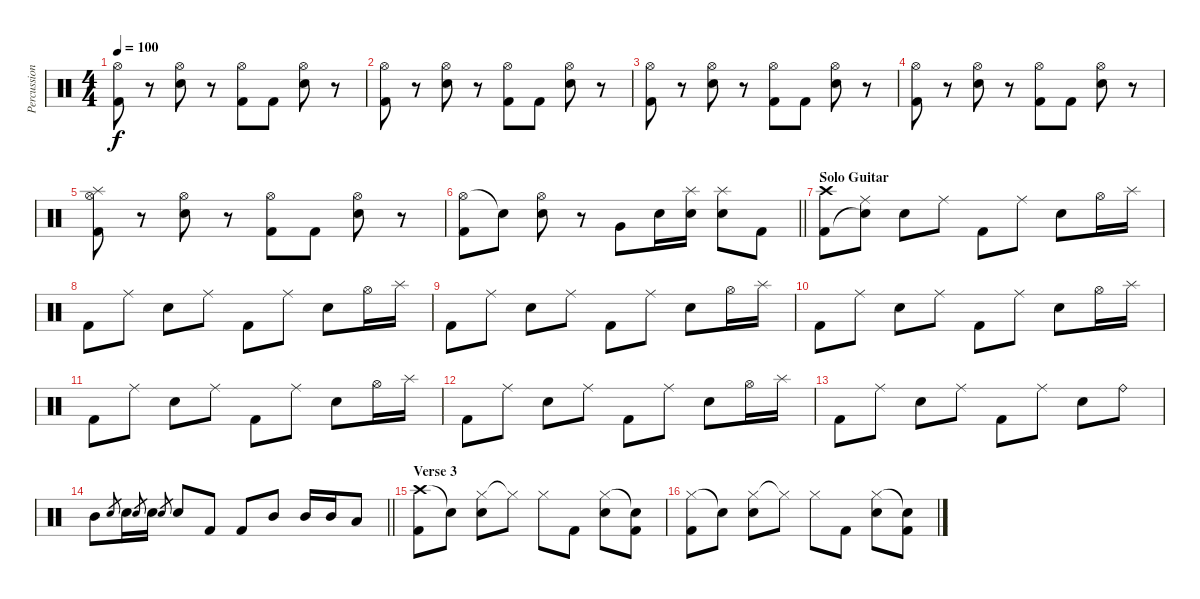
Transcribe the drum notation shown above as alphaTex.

\track ("Percussion(Tomi)" "Percussion") {instrument percussion}
\staff {score}
\articulation defaults
\ts (4 4)
\tempo 100
\clef neutral
\ks c
("Hi-Hat (open)" "Kick (hit) 2").8{dy f} r.8 ("Hi-Hat (open)" "Electric Snare (hit)").8 r.8 ("Hi-Hat (open)" "Kick (hit) 2").8 "Kick (hit) 2".8 ("Hi-Hat (open)" "Electric Snare (hit)").8 r.8 |
("Hi-Hat (open)" "Kick (hit) 2").8 r.8 ("Hi-Hat (open)" "Electric Snare (hit)").8 r.8 ("Hi-Hat (open)" "Kick (hit) 2").8 "Kick (hit) 2".8 ("Hi-Hat (open)" "Electric Snare (hit)").8 r.8 |
("Hi-Hat (open)" "Kick (hit) 2").8 r.8 ("Hi-Hat (open)" "Electric Snare (hit)").8 r.8 ("Hi-Hat (open)" "Kick (hit) 2").8 "Kick (hit) 2".8 ("Hi-Hat (open)" "Electric Snare (hit)").8 r.8 |
("Hi-Hat (open)" "Kick (hit) 2").8 r.8 ("Hi-Hat (open)" "Electric Snare (hit)").8 r.8 ("Hi-Hat (open)" "Kick (hit) 2").8 "Kick (hit) 2".8 ("Hi-Hat (open)" "Electric Snare (hit)").8 r.8 |
("Hi-Hat (open)" "Splash (hit)" "Kick (hit) 2").8 r.8 ("Hi-Hat (open)" "Electric Snare (hit)").8 r.8 ("Hi-Hat (open)" "Kick (hit) 2").8 "Kick (hit) 2".8 ("Hi-Hat (open)" "Electric Snare (hit)").8 r.8 |
\barLineRight lightlight
("Hi-Hat (open)" "Kick (hit) 2").8 "Snare (hit)"{t}.8 ("Hi-Hat (open)" "Electric Snare (hit)").8 r.8 "Very Low Tom (hit)".8 "Electric Snare (hit)".16 ("Splash (hit)" "Electric Snare (hit)").16 ("Splash (hit)" "Electric Snare (hit)").8 "Kick (hit) 2".8 |
\section ("" "Solo Guitar")
("Crash high (hit)" "Kick (hit) 2").8 ("Ride (middle)" "Snare (hit)"{t}).8 "Electric Snare (hit)".8 "Ride (middle)".8 "Kick (hit) 2".8 "Ride (middle)".8 "Electric Snare (hit)".8 "Hi-Hat (open)".16 "Splash (hit)".16 |
"Kick (hit) 2".8 "Ride (middle)".8 "Electric Snare (hit)".8 "Ride (middle)".8 "Kick (hit) 2".8 "Ride (middle)".8 "Electric Snare (hit)".8 "Hi-Hat (open)".16 "Splash (hit)".16 |
"Kick (hit) 2".8 "Ride (middle)".8 "Electric Snare (hit)".8 "Ride (middle)".8 "Kick (hit) 2".8 "Ride (middle)".8 "Electric Snare (hit)".8 "Hi-Hat (open)".16 "Splash (hit)".16 |
"Kick (hit) 2".8 "Ride (middle)".8 "Electric Snare (hit)".8 "Ride (middle)".8 "Kick (hit) 2".8 "Ride (middle)".8 "Electric Snare (hit)".8 "Hi-Hat (open)".16 "Splash (hit)".16 |
"Kick (hit) 2".8 "Ride (middle)".8 "Electric Snare (hit)".8 "Ride (middle)".8 "Kick (hit) 2".8 "Ride (middle)".8 "Electric Snare (hit)".8 "Hi-Hat (open)".16 "Splash (hit)".16 |
"Kick (hit) 2".8 "Ride (middle)".8 "Electric Snare (hit)".8 "Ride (middle)".8 "Kick (hit) 2".8 "Ride (middle)".8 "Electric Snare (hit)".8 "Hi-Hat (open)".16 "Splash (hit)".16 |
"Kick (hit) 2".8 "Ride (middle)".8 "Electric Snare (hit)".8 "Ride (middle)".8 "Kick (hit) 2".8 "Ride (middle)".8 "Electric Snare (hit)".8 "Ride (bell)".8 |
\barLineRight lightlight "Mid Tom (hit)".8 "Electric Snare (hit)".8{gr} "Electric Snare (hit)".16 "Electric Snare (hit)".8{gr} "Electric Snare (hit)".16 "Electric Snare (hit)".8{gr} "Electric Snare (hit)".8 "Kick (hit) 2".8 "Kick (hit) 2".8 "Mid Tom (hit)".8 "Mid Tom (hit)".16 "Mid Tom (hit)".16 "Low Tom (hit)".8
|
\section ("" "Verse 3")
("Crash high (hit)" "Kick (hit) 2").8 "Snare (hit)"{t}.8 ("Hi-Hat (closed)" "Electric Snare (hit)").8 "Hi-Hat (closed)"{t}.8 "Hi-Hat (closed)".8 "Kick (hit) 2".8 ("Hi-Hat (closed)" "Electric Snare (hit)").8 ("Snare (hit)"{t} "Kick (hit) 2").8 |
("Hi-Hat (closed)" "Kick (hit) 2").8 "Snare (hit)"{t}.8 ("Hi-Hat (closed)" "Electric Snare (hit)").8 "Hi-Hat (closed)"{t}.8 "Hi-Hat (closed)".8 "Kick (hit) 2".8 ("Hi-Hat (closed)" "Electric Snare (hit)").8 ("Snare (hit)"{t} "Kick (hit) 2").8
